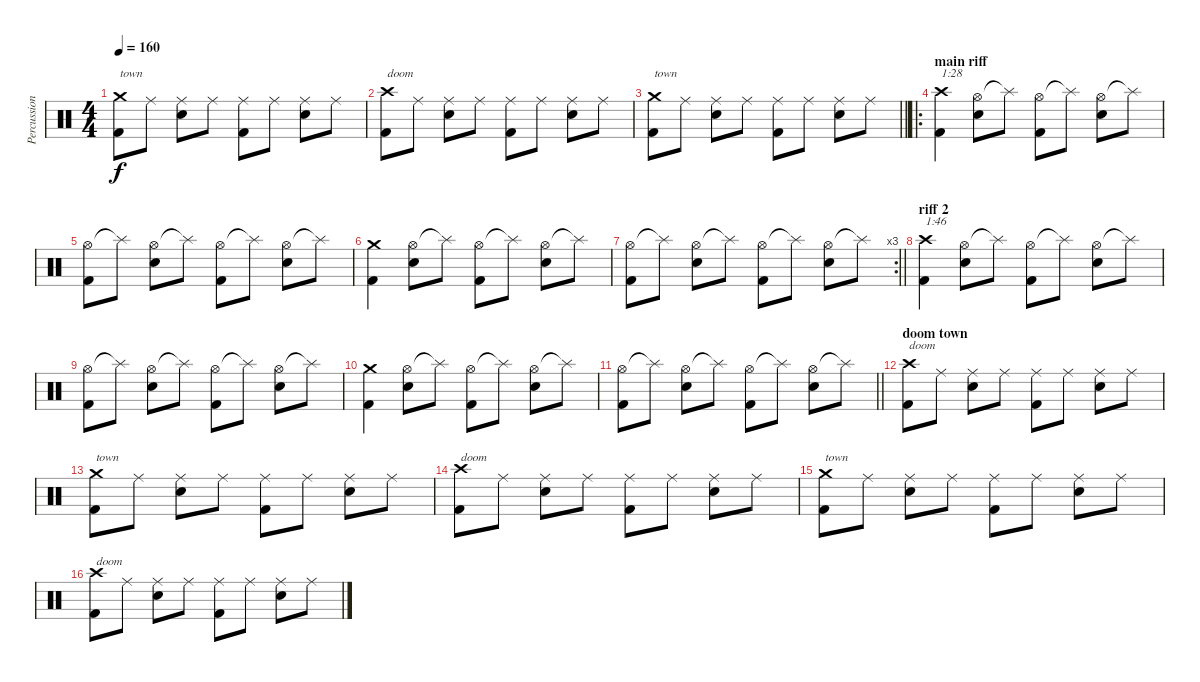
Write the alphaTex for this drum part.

\track ("Percussion" "Percussion") {mute instrument percussion}
\staff {score}
\articulation defaults
\ts (4 4)
\tempo 160
\clef neutral
\ks c
("Crash medium (hit)" "Kick (hit) 2").8{txt "town" dy f} "Ride (middle)".8 ("Ride (middle)" "Snare (hit) 2").8 "Ride (middle)".8 ("Ride (middle)" "Kick (hit) 2").8 "Ride (middle)".8 ("Ride (middle)" "Snare (hit) 2").8 "Ride (middle)".8 |
("Crash high (hit)" "Kick (hit) 2").8{txt "doom"} "Ride (middle)".8 ("Ride (middle)" "Snare (hit) 2").8 "Ride (middle)".8 ("Ride (middle)" "Kick (hit) 2").8 "Ride (middle)".8 ("Ride (middle)" "Snare (hit) 2").8 "Ride (middle)".8 |
\barLineRight lightlight
("Crash medium (hit)" "Kick (hit) 2").8{txt "town"} "Ride (middle)".8 ("Ride (middle)" "Snare (hit) 2").8 "Ride (middle)".8 ("Ride (middle)" "Kick (hit) 2").8 "Ride (middle)".8 ("Ride (middle)" "Snare (hit) 2").8 "Ride (middle)".8 |
\ro
\section ("" "main riff")
("Crash high (hit)" "Kick (hit) 2").4{txt "1:28"} ("Hi-Hat (open)" "Snare (hit) 2").8 "Splash (hit)"{t}.8 ("Hi-Hat (open)" "Kick (hit) 2").8 "Splash (hit)"{t}.8 ("Hi-Hat (open)" "Snare (hit) 2").8 "Splash (hit)"{t}.8 |
("Hi-Hat (open)" "Kick (hit) 2").8 "Splash (hit)"{t}.8 ("Hi-Hat (open)" "Snare (hit) 2").8 "Splash (hit)"{t}.8 ("Hi-Hat (open)" "Kick (hit) 2").8 "Splash (hit)"{t}.8 ("Hi-Hat (open)" "Snare (hit) 2").8 "Splash (hit)"{t}.8 |
("Crash medium (hit)" "Kick (hit) 2").4 ("Hi-Hat (open)" "Snare (hit) 2").8 "Splash (hit)"{t}.8 ("Hi-Hat (open)" "Kick (hit) 2").8 "Splash (hit)"{t}.8 ("Hi-Hat (open)" "Snare (hit) 2").8 "Splash (hit)"{t}.8 |
\rc 3
\barLineRight lightlight
("Hi-Hat (open)" "Kick (hit) 2").8 "Splash (hit)"{t}.8 ("Hi-Hat (open)" "Snare (hit) 2").8 "Splash (hit)"{t}.8 ("Hi-Hat (open)" "Kick (hit) 2").8 "Splash (hit)"{t}.8 ("Hi-Hat (open)" "Snare (hit) 2").8 "Splash (hit)"{t}.8 |
\section ("" "riff 2")
("Crash high (hit)" "Kick (hit) 2").4{txt "1:46"} ("Hi-Hat (open)" "Snare (hit) 2").8 "Splash (hit)"{t}.8 ("Hi-Hat (open)" "Kick (hit) 2").8 "Splash (hit)"{t}.8 ("Hi-Hat (open)" "Snare (hit) 2").8 "Splash (hit)"{t}.8 |
("Hi-Hat (open)" "Kick (hit) 2").8 "Splash (hit)"{t}.8 ("Hi-Hat (open)" "Snare (hit) 2").8 "Splash (hit)"{t}.8 ("Hi-Hat (open)" "Kick (hit) 2").8 "Splash (hit)"{t}.8 ("Hi-Hat (open)" "Snare (hit) 2").8 "Splash (hit)"{t}.8 |
("Crash medium (hit)" "Kick (hit) 2").4 ("Hi-Hat (open)" "Snare (hit) 2").8 "Splash (hit)"{t}.8 ("Hi-Hat (open)" "Kick (hit) 2").8 "Splash (hit)"{t}.8 ("Hi-Hat (open)" "Snare (hit) 2").8 "Splash (hit)"{t}.8 |
\barLineRight lightlight
("Hi-Hat (open)" "Kick (hit) 2").8 "Splash (hit)"{t}.8 ("Hi-Hat (open)" "Snare (hit) 2").8 "Splash (hit)"{t}.8 ("Hi-Hat (open)" "Kick (hit) 2").8 "Splash (hit)"{t}.8 ("Hi-Hat (open)" "Snare (hit) 2").8 "Splash (hit)"{t}.8 |
\section ("" "doom town")
("Crash high (hit)" "Kick (hit) 2").8{txt "doom"} "Ride (middle)".8 ("Ride (middle)" "Snare (hit) 2").8 "Ride (middle)".8 ("Ride (middle)" "Kick (hit) 2").8 "Ride (middle)".8 ("Ride (middle)" "Snare (hit) 2").8 "Ride (middle)".8 |
("Crash medium (hit)" "Kick (hit) 2").8{txt "town"} "Ride (middle)".8 ("Ride (middle)" "Snare (hit) 2").8 "Ride (middle)".8 ("Ride (middle)" "Kick (hit) 2").8 "Ride (middle)".8 ("Ride (middle)" "Snare (hit) 2").8 "Ride (middle)".8 |
("Crash high (hit)" "Kick (hit) 2").8{txt "doom"} "Ride (middle)".8 ("Ride (middle)" "Snare (hit) 2").8 "Ride (middle)".8 ("Ride (middle)" "Kick (hit) 2").8 "Ride (middle)".8 ("Ride (middle)" "Snare (hit) 2").8 "Ride (middle)".8 |
("Crash medium (hit)" "Kick (hit) 2").8{txt "town"} "Ride (middle)".8 ("Ride (middle)" "Snare (hit) 2").8 "Ride (middle)".8 ("Ride (middle)" "Kick (hit) 2").8 "Ride (middle)".8 ("Ride (middle)" "Snare (hit) 2").8 "Ride (middle)".8 |
("Crash high (hit)" "Kick (hit) 2").8{txt "doom"} "Ride (middle)".8 ("Ride (middle)" "Snare (hit) 2").8 "Ride (middle)".8 ("Ride (middle)" "Kick (hit) 2").8 "Ride (middle)".8 ("Ride (middle)" "Snare (hit) 2").8 "Ride (middle)".8
